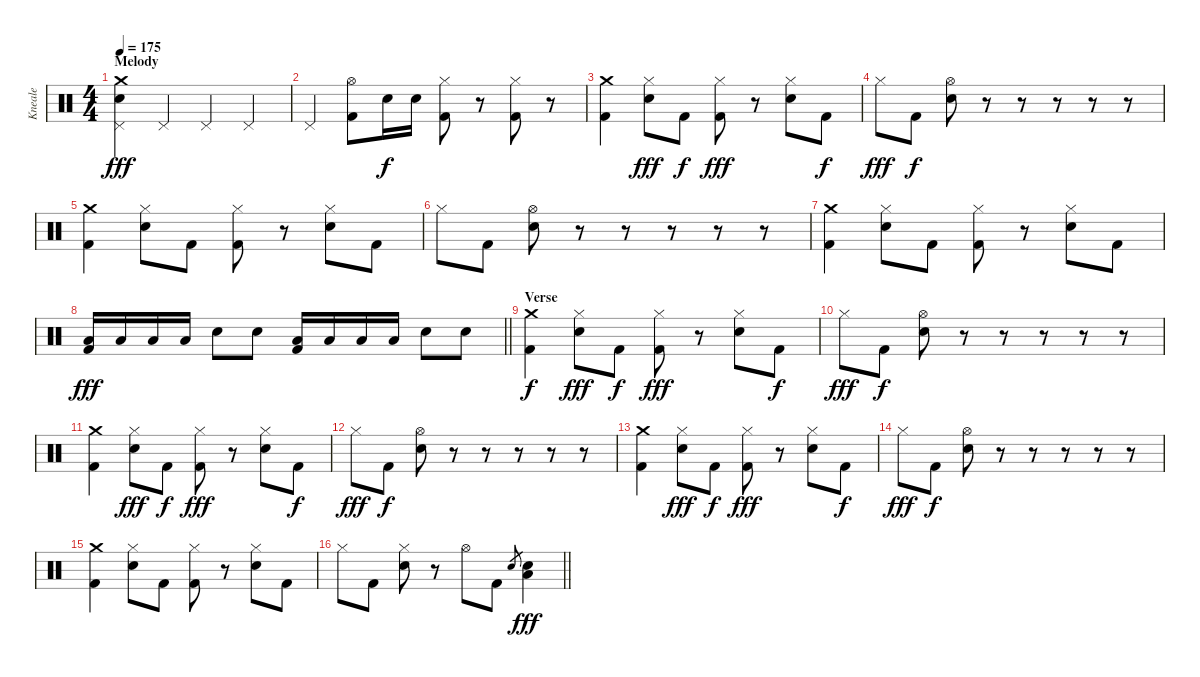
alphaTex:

\track ("Kneale" "Kneale") {instrument percussion}
\staff {score}
\articulation defaults
\ts (4 4)
\section ("" "Melody")
\tempo 175
\clef neutral
\ks c
("Crash medium (hit)" "Pedal Hi-Hat (hit)" "Electric Snare (hit)").4{dy fff} "Pedal Hi-Hat (hit)".4 "Pedal Hi-Hat (hit)".4 "Pedal Hi-Hat (hit)".4 |
"Pedal Hi-Hat (hit)".4 ("Hi-Hat (open)" "Kick (hit) 2").8 "Electric Snare (hit)".16{dy f} "Electric Snare (hit)".16 ("Hi-Hat (closed)" "Kick (hit) 2").8 r.8 ("Hi-Hat (closed)" "Kick (hit) 2").8 r.8 |
("Crash medium (hit)" "Kick (hit) 2").4 ("Hi-Hat (closed)" "Electric Snare (hit)").8{dy fff} "Kick (hit) 2".8{dy f} ("Hi-Hat (closed)" "Kick (hit) 2").8{dy fff} r.8 ("Hi-Hat (closed)" "Electric Snare (hit)").8 "Kick (hit) 2".8{dy f} |
"Hi-Hat (closed)".8{dy fff} "Kick (hit) 2".8{dy f} ("Hi-Hat (open)" "Electric Snare (hit)").8 r.8 r.8 r.8 r.8 r.8 |
("Crash medium (hit)" "Kick (hit) 2").4 ("Hi-Hat (closed)" "Electric Snare (hit)").8 "Kick (hit) 2".8 ("Hi-Hat (closed)" "Kick (hit) 2").8 r.8 ("Hi-Hat (closed)" "Electric Snare (hit)").8 "Kick (hit) 2".8 |
"Hi-Hat (closed)".8 "Kick (hit) 2".8 ("Hi-Hat (open)" "Electric Snare (hit)").8 r.8 r.8 r.8 r.8 r.8 |
("Crash medium (hit)" "Kick (hit) 2").4 ("Hi-Hat (closed)" "Electric Snare (hit)").8 "Kick (hit) 2".8 ("Hi-Hat (closed)" "Kick (hit) 2").8 r.8 ("Hi-Hat (closed)" "Electric Snare (hit)").8 "Kick (hit) 2".8 |
\barLineRight lightlight
("Low Tom (hit)" "Kick (hit) 2").16{dy fff} "Low Tom (hit)".16 "Low Tom (hit)".16 "Low Tom (hit)".16 "Electric Snare (hit)".8 "Electric Snare (hit)".8 ("Low Tom (hit)" "Kick (hit) 2").16 "Low Tom (hit)".16 "Low Tom (hit)".16 "Low Tom (hit)".16 "Electric Snare (hit)".8 "Electric Snare (hit)".8 |
\section ("" "Verse")
("Crash medium (hit)" "Kick (hit) 2").4{dy f} ("Hi-Hat (closed)" "Electric Snare (hit)").8{dy fff} "Kick (hit) 2".8{dy f} ("Hi-Hat (closed)" "Kick (hit) 2").8{dy fff} r.8 ("Hi-Hat (closed)" "Electric Snare (hit)").8 "Kick (hit) 2".8{dy f} |
"Hi-Hat (closed)".8{dy fff} "Kick (hit) 2".8{dy f} ("Hi-Hat (open)" "Electric Snare (hit)").8 r.8 r.8 r.8 r.8 r.8 |
("Crash medium (hit)" "Kick (hit) 2").4 ("Hi-Hat (closed)" "Electric Snare (hit)").8{dy fff} "Kick (hit) 2".8{dy f} ("Hi-Hat (closed)" "Kick (hit) 2").8{dy fff} r.8 ("Hi-Hat (closed)" "Electric Snare (hit)").8 "Kick (hit) 2".8{dy f} |
"Hi-Hat (closed)".8{dy fff} "Kick (hit) 2".8{dy f} ("Hi-Hat (open)" "Electric Snare (hit)").8 r.8 r.8 r.8 r.8 r.8 |
("Crash medium (hit)" "Kick (hit) 2").4 ("Hi-Hat (closed)" "Electric Snare (hit)").8{dy fff} "Kick (hit) 2".8{dy f} ("Hi-Hat (closed)" "Kick (hit) 2").8{dy fff} r.8 ("Hi-Hat (closed)" "Electric Snare (hit)").8 "Kick (hit) 2".8{dy f} |
"Hi-Hat (closed)".8{dy fff} "Kick (hit) 2".8{dy f} ("Hi-Hat (open)" "Electric Snare (hit)").8 r.8 r.8 r.8 r.8 r.8 |
("Crash medium (hit)" "Kick (hit) 2").4 ("Hi-Hat (closed)" "Electric Snare (hit)").8 "Kick (hit) 2".8 ("Hi-Hat (closed)" "Kick (hit) 2").8 r.8 ("Hi-Hat (closed)" "Electric Snare (hit)").8 "Kick (hit) 2".8 |
\barLineRight lightlight "Hi-Hat (closed)".8 "Kick (hit) 2".8
("Hi-Hat (closed)" "Electric Snare (hit)").8 r.8 "Hi-Hat (open)".8 "Kick (hit) 2".8 "Electric Snare (hit)".8{gr} ("Low Floor Tom (hit)" "Electric Snare (hit)").4{dy fff}
